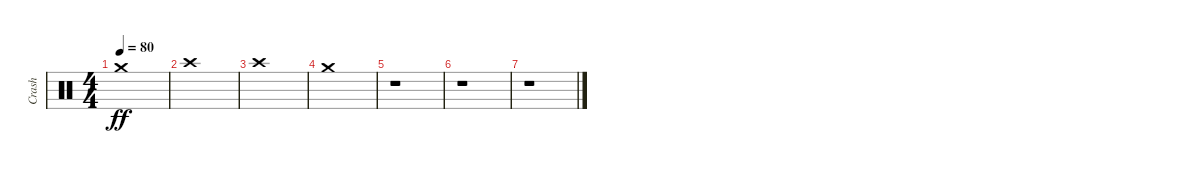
\track ("Crash" "Crash") {instrument percussion}
\staff {score}
\articulation defaults
\ts (4 4)
\tempo 80
\clef neutral
\ks c "Crash medium (hit)".1{dy ff}
|
"Crash high (hit)".1 |
"Crash high (hit)".1 |
"Crash medium (hit)".1 |
r.1 |
r.1 |
r.1
